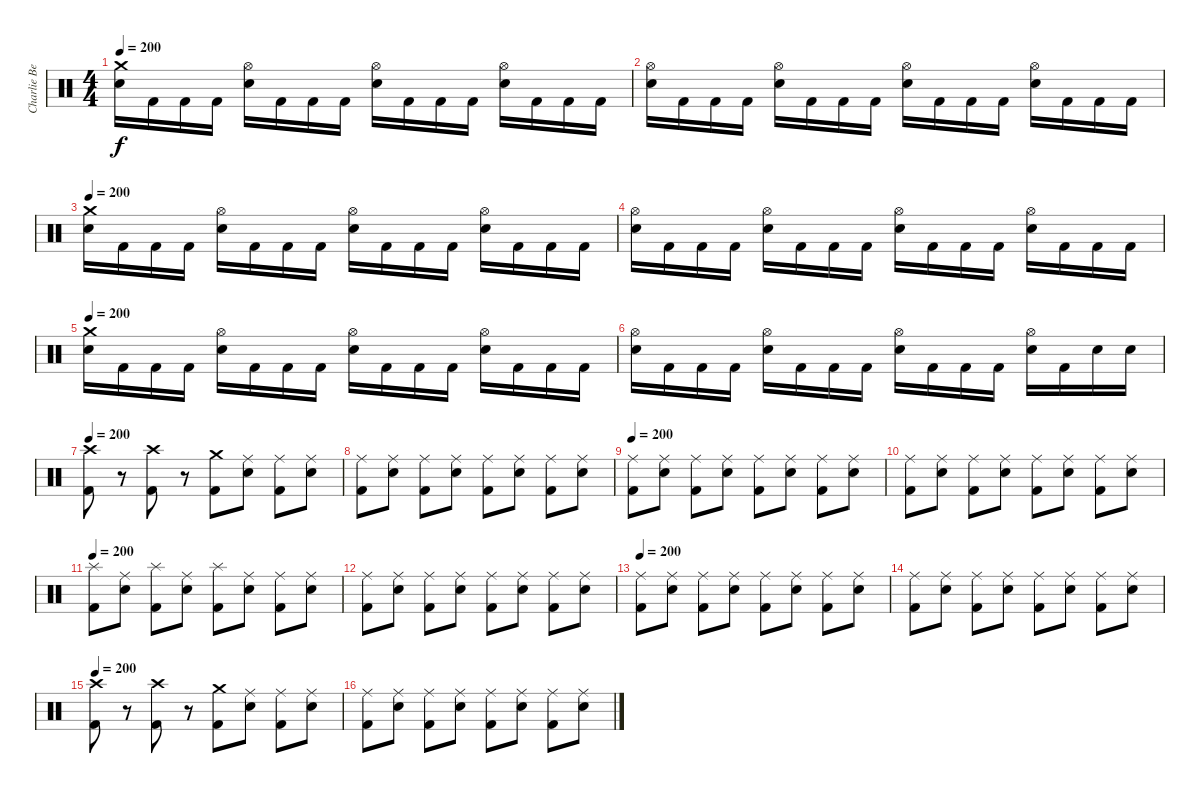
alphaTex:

\track ("Charlie Benante" "Charlie Be") {instrument percussion}
\staff {score}
\articulation defaults
\ts (4 4)
\tempo 200
\clef neutral
\ks c
("Crash medium (hit)" "Electric Snare (hit)").16{dy f} "Kick (hit) 2".16 "Kick (hit) 2".16 "Kick (hit) 2".16 ("Hi-Hat (open)" "Electric Snare (hit)").16 "Kick (hit) 2".16 "Kick (hit) 2".16 "Kick (hit) 2".16 ("Hi-Hat (open)" "Electric Snare (hit)").16 "Kick (hit) 2".16 "Kick (hit) 2".16 "Kick (hit) 2".16 ("Hi-Hat (open)" "Electric Snare (hit)").16 "Kick (hit) 2".16 "Kick (hit) 2".16 "Kick (hit) 2".16 |
("Hi-Hat (open)" "Electric Snare (hit)").16 "Kick (hit) 2".16 "Kick (hit) 2".16 "Kick (hit) 2".16 ("Hi-Hat (open)" "Electric Snare (hit)").16 "Kick (hit) 2".16 "Kick (hit) 2".16 "Kick (hit) 2".16 ("Hi-Hat (open)" "Electric Snare (hit)").16 "Kick (hit) 2".16 "Kick (hit) 2".16 "Kick (hit) 2".16 ("Hi-Hat (open)" "Electric Snare (hit)").16 "Kick (hit) 2".16 "Kick (hit) 2".16 "Kick (hit) 2".16 |
\tempo 200
("Crash medium (hit)" "Electric Snare (hit)").16 "Kick (hit) 2".16 "Kick (hit) 2".16 "Kick (hit) 2".16 ("Hi-Hat (open)" "Electric Snare (hit)").16 "Kick (hit) 2".16 "Kick (hit) 2".16 "Kick (hit) 2".16 ("Hi-Hat (open)" "Electric Snare (hit)").16 "Kick (hit) 2".16 "Kick (hit) 2".16 "Kick (hit) 2".16 ("Hi-Hat (open)" "Electric Snare (hit)").16 "Kick (hit) 2".16 "Kick (hit) 2".16 "Kick (hit) 2".16 |
("Hi-Hat (open)" "Electric Snare (hit)").16 "Kick (hit) 2".16 "Kick (hit) 2".16 "Kick (hit) 2".16 ("Hi-Hat (open)" "Electric Snare (hit)").16 "Kick (hit) 2".16 "Kick (hit) 2".16 "Kick (hit) 2".16 ("Hi-Hat (open)" "Electric Snare (hit)").16 "Kick (hit) 2".16 "Kick (hit) 2".16 "Kick (hit) 2".16 ("Hi-Hat (open)" "Electric Snare (hit)").16 "Kick (hit) 2".16 "Kick (hit) 2".16 "Kick (hit) 2".16 |
\tempo 200
("Crash medium (hit)" "Electric Snare (hit)").16 "Kick (hit) 2".16 "Kick (hit) 2".16 "Kick (hit) 2".16 ("Hi-Hat (open)" "Electric Snare (hit)").16 "Kick (hit) 2".16 "Kick (hit) 2".16 "Kick (hit) 2".16 ("Hi-Hat (open)" "Electric Snare (hit)").16 "Kick (hit) 2".16 "Kick (hit) 2".16 "Kick (hit) 2".16 ("Hi-Hat (open)" "Electric Snare (hit)").16 "Kick (hit) 2".16 "Kick (hit) 2".16 "Kick (hit) 2".16 |
("Hi-Hat (open)" "Electric Snare (hit)").16 "Kick (hit) 2".16 "Kick (hit) 2".16 "Kick (hit) 2".16 ("Hi-Hat (open)" "Electric Snare (hit)").16 "Kick (hit) 2".16 "Kick (hit) 2".16 "Kick (hit) 2".16 ("Hi-Hat (open)" "Electric Snare (hit)").16 "Kick (hit) 2".16 "Kick (hit) 2".16 "Kick (hit) 2".16 ("Hi-Hat (open)" "Electric Snare (hit)").16 "Kick (hit) 2".16 "Electric Snare (hit)".16 "Electric Snare (hit)".16 |
\tempo 200
("Crash high (hit)" "Kick (hit) 2").8 r.8 ("Crash high (hit)" "Kick (hit) 2").8 r.8 ("Crash medium (hit)" "Kick (hit) 2").8 ("Ride (middle)" "Electric Snare (hit)").8 ("Ride (middle)" "Kick (hit) 2").8 ("Ride (middle)" "Electric Snare (hit)").8 |
("Ride (middle)" "Kick (hit) 2").8 ("Ride (middle)" "Electric Snare (hit)").8 ("Ride (middle)" "Kick (hit) 2").8 ("Ride (middle)" "Electric Snare (hit)").8 ("Ride (middle)" "Kick (hit) 2").8 ("Ride (middle)" "Electric Snare (hit)").8 ("Ride (middle)" "Kick (hit) 2").8 ("Ride (middle)" "Electric Snare (hit)").8 |
\tempo 200
("Ride (middle)" "Kick (hit) 2").8 ("Ride (middle)" "Electric Snare (hit)").8 ("Ride (middle)" "Kick (hit) 2").8 ("Ride (middle)" "Electric Snare (hit)").8 ("Ride (middle)" "Kick (hit) 2").8 ("Ride (middle)" "Electric Snare (hit)").8 ("Ride (middle)" "Kick (hit) 2").8 ("Ride (middle)" "Electric Snare (hit)").8 |
("Ride (middle)" "Kick (hit) 2").8 ("Ride (middle)" "Electric Snare (hit)").8 ("Ride (middle)" "Kick (hit) 2").8 ("Ride (middle)" "Electric Snare (hit)").8 ("Ride (middle)" "Kick (hit) 2").8 ("Ride (middle)" "Electric Snare (hit)").8 ("Ride (middle)" "Kick (hit) 2").8 ("Ride (middle)" "Electric Snare (hit)").8 |
\tempo 200
("Splash (hit)" "Kick (hit) 2").8 ("Ride (middle)" "Electric Snare (hit)").8 ("Splash (hit)" "Kick (hit) 2").8 ("Ride (middle)" "Electric Snare (hit)").8 ("Splash (hit)" "Kick (hit) 2").8 ("Ride (middle)" "Electric Snare (hit)").8 ("Ride (middle)" "Kick (hit) 2").8 ("Ride (middle)" "Electric Snare (hit)").8 |
("Ride (middle)" "Kick (hit) 2").8 ("Ride (middle)" "Electric Snare (hit)").8 ("Ride (middle)" "Kick (hit) 2").8 ("Ride (middle)" "Electric Snare (hit)").8 ("Ride (middle)" "Kick (hit) 2").8 ("Ride (middle)" "Electric Snare (hit)").8 ("Ride (middle)" "Kick (hit) 2").8 ("Ride (middle)" "Electric Snare (hit)").8 |
\tempo 200
("Ride (middle)" "Kick (hit) 2").8 ("Ride (middle)" "Electric Snare (hit)").8 ("Ride (middle)" "Kick (hit) 2").8 ("Ride (middle)" "Electric Snare (hit)").8 ("Ride (middle)" "Kick (hit) 2").8 ("Ride (middle)" "Electric Snare (hit)").8 ("Ride (middle)" "Kick (hit) 2").8 ("Ride (middle)" "Electric Snare (hit)").8 |
("Ride (middle)" "Kick (hit) 2").8 ("Ride (middle)" "Electric Snare (hit)").8 ("Ride (middle)" "Kick (hit) 2").8 ("Ride (middle)" "Electric Snare (hit)").8 ("Ride (middle)" "Kick (hit) 2").8 ("Ride (middle)" "Electric Snare (hit)").8 ("Ride (middle)" "Kick (hit) 2").8 ("Ride (middle)" "Electric Snare (hit)").8 |
\tempo 200
("Crash high (hit)" "Kick (hit) 2").8 r.8 ("Crash high (hit)" "Kick (hit) 2").8 r.8 ("Crash medium (hit)" "Kick (hit) 2").8 ("Ride (middle)" "Electric Snare (hit)").8 ("Ride (middle)" "Kick (hit) 2").8 ("Ride (middle)" "Electric Snare (hit)").8 |
("Ride (middle)" "Kick (hit) 2").8 ("Ride (middle)" "Electric Snare (hit)").8 ("Ride (middle)" "Kick (hit) 2").8 ("Ride (middle)" "Electric Snare (hit)").8 ("Ride (middle)" "Kick (hit) 2").8 ("Ride (middle)" "Electric Snare (hit)").8 ("Ride (middle)" "Kick (hit) 2").8 ("Ride (middle)" "Electric Snare (hit)").8
